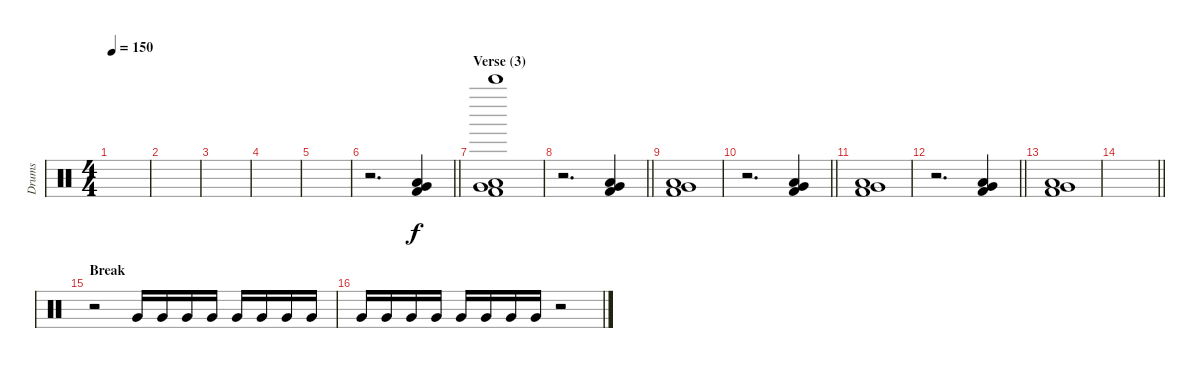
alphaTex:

\track ("Drums" "Drums") {instrument percussion}
\staff {score}
\articulation defaults
\ts (4 4)
\tempo 150
\clef neutral
\ks c
|
|
|
|
|
\barLineRight lightlight
r.2{d} ("Kick (hit) 2" "Low Floor Tom (hit)" "Very Low Tom (hit)").4 |
\section ("" "Verse (3)")
("Kick (hit) 2" "Low Floor Tom (hit)" "Very Low Tom (hit)" "Bell Tree (hit)").1 |
\barLineRight lightlight
r.2{d} ("Kick (hit) 2" "Low Floor Tom (hit)" "Very Low Tom (hit)").4 |
("Kick (hit) 2" "Low Floor Tom (hit)" "Very Low Tom (hit)").1 |
\barLineRight lightlight
r.2{d} ("Kick (hit) 2" "Low Floor Tom (hit)" "Very Low Tom (hit)").4 |
("Kick (hit) 2" "Low Floor Tom (hit)" "Very Low Tom (hit)").1 |
\barLineRight lightlight
r.2{d} ("Kick (hit) 2" "Low Floor Tom (hit)" "Very Low Tom (hit)").4 |
("Kick (hit) 2" "Low Floor Tom (hit)" "Very Low Tom (hit)").1 |
\barLineRight lightlight
|
\section ("" "Break")
r.2{volume 4} "Very Low Tom (hit)".16{volume 8} "Very Low Tom (hit)".16 "Very Low Tom (hit)".16 "Very Low Tom (hit)".16 "Very Low Tom (hit)".16 "Very Low Tom (hit)".16 "Very Low Tom (hit)".16 "Very Low Tom (hit)".16 |
"Very Low Tom (hit)".16{volume 2} "Very Low Tom (hit)".16 "Very Low Tom (hit)".16 "Very Low Tom (hit)".16 "Very Low Tom (hit)".16 "Very Low Tom (hit)".16 "Very Low Tom (hit)".16 "Very Low Tom (hit)".16 r.2
